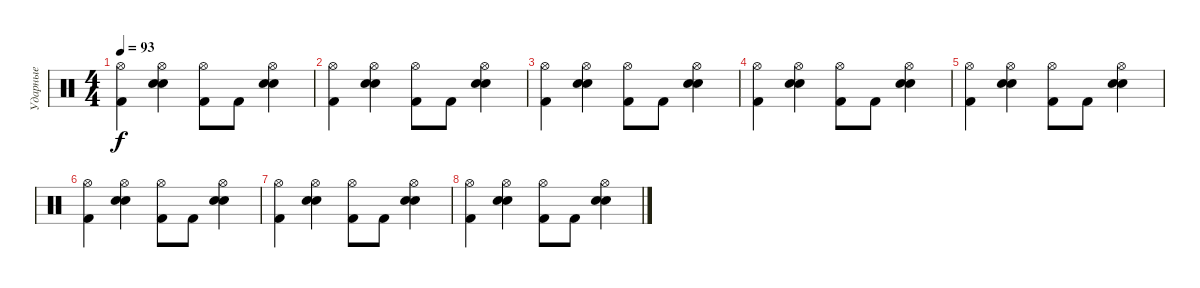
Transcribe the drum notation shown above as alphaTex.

\track ("Ударные" "Ударные") {instrument percussion}
\staff {score}
\articulation defaults
\ts (4 4)
\tempo 93
\clef neutral
\ks c
("Hi-Hat (open)" "Kick (hit) 2").4{dy f} ("Hi-Hat (open)" "Snare (hit) 2" "Electric Snare (hit)").4 ("Hi-Hat (open)" "Kick (hit) 2").8 "Kick (hit) 2".8 ("Hi-Hat (open)" "Snare (hit) 2" "Electric Snare (hit)").4 |
("Hi-Hat (open)" "Kick (hit) 2").4 ("Hi-Hat (open)" "Snare (hit) 2" "Electric Snare (hit)").4 ("Hi-Hat (open)" "Kick (hit) 2").8 "Kick (hit) 2".8 ("Hi-Hat (open)" "Snare (hit) 2" "Electric Snare (hit)").4 |
("Hi-Hat (open)" "Kick (hit) 2").4 ("Hi-Hat (open)" "Snare (hit) 2" "Electric Snare (hit)").4 ("Hi-Hat (open)" "Kick (hit) 2").8 "Kick (hit) 2".8 ("Hi-Hat (open)" "Snare (hit) 2" "Electric Snare (hit)").4 |
("Hi-Hat (open)" "Kick (hit) 2").4 ("Hi-Hat (open)" "Snare (hit) 2" "Electric Snare (hit)").4 ("Hi-Hat (open)" "Kick (hit) 2").8 "Kick (hit) 2".8 ("Hi-Hat (open)" "Snare (hit) 2" "Electric Snare (hit)").4 |
("Hi-Hat (open)" "Kick (hit) 2").4 ("Hi-Hat (open)" "Snare (hit) 2" "Electric Snare (hit)").4 ("Hi-Hat (open)" "Kick (hit) 2").8 "Kick (hit) 2".8 ("Hi-Hat (open)" "Snare (hit) 2" "Electric Snare (hit)").4 |
("Hi-Hat (open)" "Kick (hit) 2").4 ("Hi-Hat (open)" "Snare (hit) 2" "Electric Snare (hit)").4 ("Hi-Hat (open)" "Kick (hit) 2").8 "Kick (hit) 2".8 ("Hi-Hat (open)" "Snare (hit) 2" "Electric Snare (hit)").4 |
("Hi-Hat (open)" "Kick (hit) 2").4 ("Hi-Hat (open)" "Snare (hit) 2" "Electric Snare (hit)").4 ("Hi-Hat (open)" "Kick (hit) 2").8 "Kick (hit) 2".8 ("Hi-Hat (open)" "Snare (hit) 2" "Electric Snare (hit)").4 |
("Hi-Hat (open)" "Kick (hit) 2").4 ("Hi-Hat (open)" "Snare (hit) 2" "Electric Snare (hit)").4 ("Hi-Hat (open)" "Kick (hit) 2").8 "Kick (hit) 2".8 ("Hi-Hat (open)" "Snare (hit) 2" "Electric Snare (hit)").4
